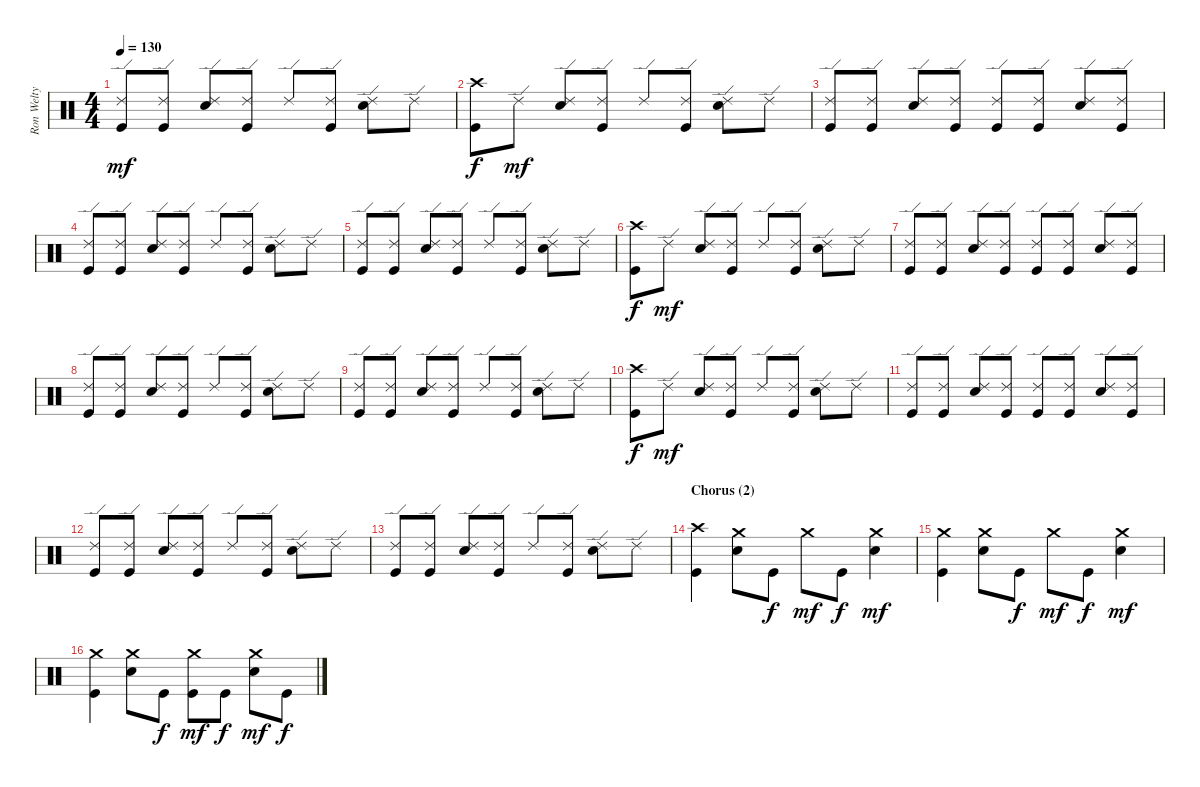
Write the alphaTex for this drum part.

\track ("Ron Welty" "Ron Welty") {instrument percussion}
\staff {score}
\articulation defaults
\ts (4 4)
\tempo 130
\clef neutral
\ks c
("Kick (hit)" "Ride (edge) 2").8{dy mf} ("Kick (hit)" "Ride (edge) 2").8 ("Electric Snare (hit)" "Ride (edge) 2").8 ("Kick (hit)" "Ride (edge) 2").8 "Ride (edge) 2".8 ("Kick (hit)" "Ride (edge) 2").8 ("Electric Snare (hit)" "Ride (edge) 2").8 "Ride (edge) 2".8 |
("Kick (hit)" "Crash high (hit)").8{dy f} "Ride (edge) 2".8{dy mf} ("Electric Snare (hit)" "Ride (edge) 2").8 ("Kick (hit)" "Ride (edge) 2").8 "Ride (edge) 2".8 ("Kick (hit)" "Ride (edge) 2").8 ("Electric Snare (hit)" "Ride (edge) 2").8 "Ride (edge) 2".8 |
("Kick (hit)" "Ride (edge) 2").8 ("Kick (hit)" "Ride (edge) 2").8 ("Electric Snare (hit)" "Ride (edge) 2").8 ("Kick (hit)" "Ride (edge) 2").8 ("Kick (hit)" "Ride (edge) 2").8 ("Kick (hit)" "Ride (edge) 2").8 ("Electric Snare (hit)" "Ride (edge) 2").8 ("Kick (hit)" "Ride (edge) 2").8 |
("Kick (hit)" "Ride (edge) 2").8 ("Kick (hit)" "Ride (edge) 2").8 ("Electric Snare (hit)" "Ride (edge) 2").8 ("Kick (hit)" "Ride (edge) 2").8 "Ride (edge) 2".8 ("Kick (hit)" "Ride (edge) 2").8 ("Electric Snare (hit)" "Ride (edge) 2").8 "Ride (edge) 2".8 |
("Kick (hit)" "Ride (edge) 2").8 ("Kick (hit)" "Ride (edge) 2").8 ("Electric Snare (hit)" "Ride (edge) 2").8 ("Kick (hit)" "Ride (edge) 2").8 "Ride (edge) 2".8 ("Kick (hit)" "Ride (edge) 2").8 ("Electric Snare (hit)" "Ride (edge) 2").8 "Ride (edge) 2".8 |
("Kick (hit)" "Crash high (hit)").8{dy f} "Ride (edge) 2".8{dy mf} ("Electric Snare (hit)" "Ride (edge) 2").8 ("Kick (hit)" "Ride (edge) 2").8 "Ride (edge) 2".8 ("Kick (hit)" "Ride (edge) 2").8 ("Electric Snare (hit)" "Ride (edge) 2").8 "Ride (edge) 2".8 |
("Kick (hit)" "Ride (edge) 2").8 ("Kick (hit)" "Ride (edge) 2").8 ("Electric Snare (hit)" "Ride (edge) 2").8 ("Kick (hit)" "Ride (edge) 2").8 ("Kick (hit)" "Ride (edge) 2").8 ("Kick (hit)" "Ride (edge) 2").8 ("Electric Snare (hit)" "Ride (edge) 2").8 ("Kick (hit)" "Ride (edge) 2").8 |
("Kick (hit)" "Ride (edge) 2").8 ("Kick (hit)" "Ride (edge) 2").8 ("Electric Snare (hit)" "Ride (edge) 2").8 ("Kick (hit)" "Ride (edge) 2").8 "Ride (edge) 2".8 ("Kick (hit)" "Ride (edge) 2").8 ("Electric Snare (hit)" "Ride (edge) 2").8 "Ride (edge) 2".8 |
("Kick (hit)" "Ride (edge) 2").8 ("Kick (hit)" "Ride (edge) 2").8 ("Electric Snare (hit)" "Ride (edge) 2").8 ("Kick (hit)" "Ride (edge) 2").8 "Ride (edge) 2".8 ("Kick (hit)" "Ride (edge) 2").8 ("Electric Snare (hit)" "Ride (edge) 2").8 "Ride (edge) 2".8 |
("Kick (hit)" "Crash high (hit)").8{dy f} "Ride (edge) 2".8{dy mf} ("Electric Snare (hit)" "Ride (edge) 2").8 ("Kick (hit)" "Ride (edge) 2").8 "Ride (edge) 2".8 ("Kick (hit)" "Ride (edge) 2").8 ("Electric Snare (hit)" "Ride (edge) 2").8 "Ride (edge) 2".8 |
("Kick (hit)" "Ride (edge) 2").8 ("Kick (hit)" "Ride (edge) 2").8 ("Electric Snare (hit)" "Ride (edge) 2").8 ("Kick (hit)" "Ride (edge) 2").8 ("Kick (hit)" "Ride (edge) 2").8 ("Kick (hit)" "Ride (edge) 2").8 ("Electric Snare (hit)" "Ride (edge) 2").8 ("Kick (hit)" "Ride (edge) 2").8 |
("Kick (hit)" "Ride (edge) 2").8 ("Kick (hit)" "Ride (edge) 2").8 ("Electric Snare (hit)" "Ride (edge) 2").8 ("Kick (hit)" "Ride (edge) 2").8 "Ride (edge) 2".8 ("Kick (hit)" "Ride (edge) 2").8 ("Electric Snare (hit)" "Ride (edge) 2").8 "Ride (edge) 2".8 |
("Kick (hit)" "Ride (edge) 2").8 ("Kick (hit)" "Ride (edge) 2").8 ("Electric Snare (hit)" "Ride (edge) 2").8 ("Kick (hit)" "Ride (edge) 2").8 "Ride (edge) 2".8 ("Kick (hit)" "Ride (edge) 2").8 ("Electric Snare (hit)" "Ride (edge) 2").8 "Ride (edge) 2".8 |
\section ("" "Chorus (2)")
("Kick (hit)" "Crash high (hit)").4 ("Electric Snare (hit)" "Crash medium (hit)").8 "Kick (hit)".8{dy f} "Crash medium (hit)".8{dy mf} "Kick (hit)".8{dy f} ("Electric Snare (hit)" "Crash medium (hit)").4{dy mf} |
("Kick (hit)" "Crash medium (hit)").4 ("Electric Snare (hit)" "Crash medium (hit)").8 "Kick (hit)".8{dy f} "Crash medium (hit)".8{dy mf} "Kick (hit)".8{dy f} ("Electric Snare (hit)" "Crash medium (hit)").4{dy mf} |
("Kick (hit)" "Crash medium (hit)").4 ("Electric Snare (hit)" "Crash medium (hit)").8 "Kick (hit)".8{dy f} ("Kick (hit)" "Crash medium (hit)").8{dy mf} "Kick (hit)".8{dy f} ("Electric Snare (hit)" "Crash medium (hit)").8{dy mf} "Kick (hit)".8{dy f}
